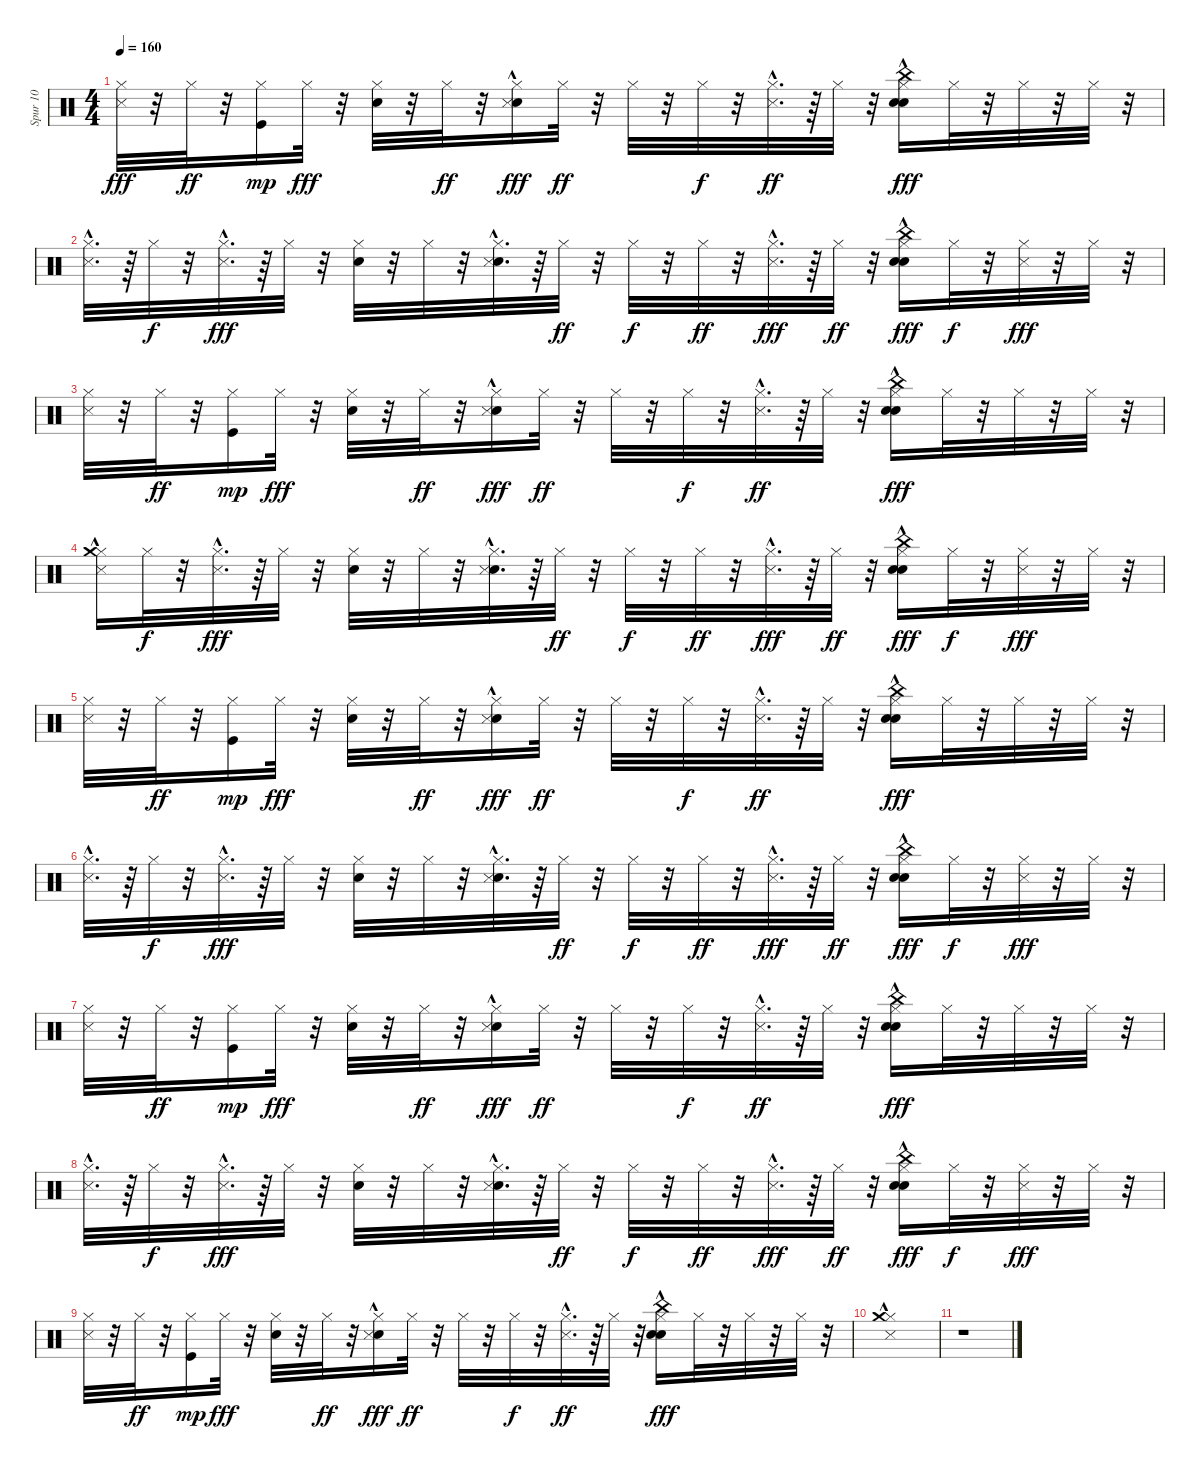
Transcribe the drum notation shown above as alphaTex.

\track ("Spur 10" "Spur 10") {instrument percussion}
\staff {score}
\articulation defaults
\ts (4 4)
\tempo 160
\clef neutral
\ks c
("Hi-Hat (closed)" "Metronome (hit)").32{dy fff} r.32 "Hi-Hat (closed)".32{dy ff} r.32 ("Hi-Hat (closed)" "Kick (hit)").16{dy mp} "Hi-Hat (closed)".32{dy fff} r.32 ("Hi-Hat (closed)" "Snare (hit) 2").32 r.32 "Hi-Hat (closed)".32{dy ff} r.32 ("Hi-Hat (closed)" "Snare (hit) 2" "Metronome (hit)"{hac}).16{dy fff} "Hi-Hat (closed)".32{dy ff} r.32 "Hi-Hat (closed)".32 r.32 "Hi-Hat (closed)".32{dy f} r.32 ("Hi-Hat (closed)" "Metronome (hit)"{hac}).32{d dy ff} r.64 "Hi-Hat (closed)".32 r.32 ("Hi-Hat (closed)" "Snare (hit) 2"{hac} "China (hit)" "Hand Clap (hit)").16{dy fff} "Hi-Hat (closed)".32 r.32 "Hi-Hat (closed)".32 r.32 "Hi-Hat (closed)".32 r.32 |
("Hi-Hat (closed)" "Metronome (hit)"{hac}).32{d} r.64 "Hi-Hat (closed)".32{dy f} r.32 ("Hi-Hat (closed)" "Metronome (hit)"{hac}).32{d dy fff} r.64 "Hi-Hat (closed)".32 r.32 ("Hi-Hat (closed)" "Snare (hit) 2").32 r.32 "Hi-Hat (closed)".32 r.32 ("Hi-Hat (closed)" "Snare (hit) 2"{hac} "Metronome (hit)"{hac}).32{d} r.64 "Hi-Hat (closed)".32{dy ff} r.32 "Hi-Hat (closed)".32{dy f} r.32 "Hi-Hat (closed)".32{dy ff} r.32 ("Hi-Hat (closed)" "Metronome (hit)"{hac}).32{d dy fff} r.64 "Hi-Hat (closed)".32{dy ff} r.32 ("Hi-Hat (closed)" "Snare (hit) 2"{hac} "China (hit)" "Hand Clap (hit)").16{dy fff} "Hi-Hat (closed)".32{dy f} r.32 ("Hi-Hat (closed)" "Metronome (hit)").32{dy fff} r.32 "Hi-Hat (closed)".32 r.32 |
("Hi-Hat (closed)" "Metronome (hit)").32 r.32 "Hi-Hat (closed)".32{dy ff} r.32 ("Hi-Hat (closed)" "Kick (hit)").16{dy mp} "Hi-Hat (closed)".32{dy fff} r.32 ("Hi-Hat (closed)" "Snare (hit) 2").32 r.32 "Hi-Hat (closed)".32{dy ff} r.32 ("Hi-Hat (closed)" "Snare (hit) 2" "Metronome (hit)"{hac}).16{dy fff} "Hi-Hat (closed)".32{dy ff} r.32 "Hi-Hat (closed)".32 r.32 "Hi-Hat (closed)".32{dy f} r.32 ("Hi-Hat (closed)" "Metronome (hit)"{hac}).32{d dy ff} r.64 "Hi-Hat (closed)".32 r.32 ("Hi-Hat (closed)" "Snare (hit) 2"{hac} "China (hit)" "Hand Clap (hit)").16{dy fff} "Hi-Hat (closed)".32 r.32 "Hi-Hat (closed)".32 r.32 "Hi-Hat (closed)".32 r.32 |
("Hi-Hat (closed)" "Metronome (hit)"{hac} "Crash medium (hit)").16 "Hi-Hat (closed)".32{dy f} r.32 ("Hi-Hat (closed)" "Metronome (hit)"{hac}).32{d dy fff} r.64 "Hi-Hat (closed)".32 r.32 ("Hi-Hat (closed)" "Snare (hit) 2").32 r.32 "Hi-Hat (closed)".32 r.32 ("Hi-Hat (closed)" "Snare (hit) 2"{hac} "Metronome (hit)"{hac}).32{d} r.64 "Hi-Hat (closed)".32{dy ff} r.32 "Hi-Hat (closed)".32{dy f} r.32 "Hi-Hat (closed)".32{dy ff} r.32 ("Hi-Hat (closed)" "Metronome (hit)"{hac}).32{d dy fff} r.64 "Hi-Hat (closed)".32{dy ff} r.32 ("Hi-Hat (closed)" "Snare (hit) 2"{hac} "China (hit)" "Hand Clap (hit)").16{dy fff} "Hi-Hat (closed)".32{dy f} r.32 ("Hi-Hat (closed)" "Metronome (hit)").32{dy fff} r.32 "Hi-Hat (closed)".32 r.32 |
("Hi-Hat (closed)" "Metronome (hit)").32 r.32 "Hi-Hat (closed)".32{dy ff} r.32 ("Hi-Hat (closed)" "Kick (hit)").16{dy mp} "Hi-Hat (closed)".32{dy fff} r.32 ("Hi-Hat (closed)" "Snare (hit) 2").32 r.32 "Hi-Hat (closed)".32{dy ff} r.32 ("Hi-Hat (closed)" "Snare (hit) 2" "Metronome (hit)"{hac}).16{dy fff} "Hi-Hat (closed)".32{dy ff} r.32 "Hi-Hat (closed)".32 r.32 "Hi-Hat (closed)".32{dy f} r.32 ("Hi-Hat (closed)" "Metronome (hit)"{hac}).32{d dy ff} r.64 "Hi-Hat (closed)".32 r.32 ("Hi-Hat (closed)" "Snare (hit) 2"{hac} "China (hit)" "Hand Clap (hit)").16{dy fff} "Hi-Hat (closed)".32 r.32 "Hi-Hat (closed)".32 r.32 "Hi-Hat (closed)".32 r.32 |
("Hi-Hat (closed)" "Metronome (hit)"{hac}).32{d} r.64 "Hi-Hat (closed)".32{dy f} r.32 ("Hi-Hat (closed)" "Metronome (hit)"{hac}).32{d dy fff} r.64 "Hi-Hat (closed)".32 r.32 ("Hi-Hat (closed)" "Snare (hit) 2").32 r.32 "Hi-Hat (closed)".32 r.32 ("Hi-Hat (closed)" "Snare (hit) 2"{hac} "Metronome (hit)"{hac}).32{d} r.64 "Hi-Hat (closed)".32{dy ff} r.32 "Hi-Hat (closed)".32{dy f} r.32 "Hi-Hat (closed)".32{dy ff} r.32 ("Hi-Hat (closed)" "Metronome (hit)"{hac}).32{d dy fff} r.64 "Hi-Hat (closed)".32{dy ff} r.32 ("Hi-Hat (closed)" "Snare (hit) 2"{hac} "China (hit)" "Hand Clap (hit)").16{dy fff} "Hi-Hat (closed)".32{dy f} r.32 ("Hi-Hat (closed)" "Metronome (hit)").32{dy fff} r.32 "Hi-Hat (closed)".32 r.32 |
("Hi-Hat (closed)" "Metronome (hit)").32 r.32 "Hi-Hat (closed)".32{dy ff} r.32 ("Hi-Hat (closed)" "Kick (hit)").16{dy mp} "Hi-Hat (closed)".32{dy fff} r.32 ("Hi-Hat (closed)" "Snare (hit) 2").32 r.32 "Hi-Hat (closed)".32{dy ff} r.32 ("Hi-Hat (closed)" "Snare (hit) 2" "Metronome (hit)"{hac}).16{dy fff} "Hi-Hat (closed)".32{dy ff} r.32 "Hi-Hat (closed)".32 r.32 "Hi-Hat (closed)".32{dy f} r.32 ("Hi-Hat (closed)" "Metronome (hit)"{hac}).32{d dy ff} r.64 "Hi-Hat (closed)".32 r.32 ("Hi-Hat (closed)" "Snare (hit) 2"{hac} "China (hit)" "Hand Clap (hit)").16{dy fff} "Hi-Hat (closed)".32 r.32 "Hi-Hat (closed)".32 r.32 "Hi-Hat (closed)".32 r.32 |
("Hi-Hat (closed)" "Metronome (hit)"{hac}).32{d} r.64 "Hi-Hat (closed)".32{dy f} r.32 ("Hi-Hat (closed)" "Metronome (hit)"{hac}).32{d dy fff} r.64 "Hi-Hat (closed)".32 r.32 ("Hi-Hat (closed)" "Snare (hit) 2").32 r.32 "Hi-Hat (closed)".32 r.32 ("Hi-Hat (closed)" "Snare (hit) 2"{hac} "Metronome (hit)"{hac}).32{d} r.64 "Hi-Hat (closed)".32{dy ff} r.32 "Hi-Hat (closed)".32{dy f} r.32 "Hi-Hat (closed)".32{dy ff} r.32 ("Hi-Hat (closed)" "Metronome (hit)"{hac}).32{d dy fff} r.64 "Hi-Hat (closed)".32{dy ff} r.32 ("Hi-Hat (closed)" "Snare (hit) 2"{hac} "China (hit)" "Hand Clap (hit)").16{dy fff} "Hi-Hat (closed)".32{dy f} r.32 ("Hi-Hat (closed)" "Metronome (hit)").32{dy fff} r.32 "Hi-Hat (closed)".32 r.32 |
("Hi-Hat (closed)" "Metronome (hit)").32 r.32 "Hi-Hat (closed)".32{dy ff} r.32 ("Hi-Hat (closed)" "Kick (hit)").16{dy mp} "Hi-Hat (closed)".32{dy fff} r.32 ("Hi-Hat (closed)" "Snare (hit) 2").32 r.32 "Hi-Hat (closed)".32{dy ff} r.32 ("Hi-Hat (closed)" "Snare (hit) 2" "Metronome (hit)"{hac}).16{dy fff} "Hi-Hat (closed)".32{dy ff} r.32 "Hi-Hat (closed)".32 r.32 "Hi-Hat (closed)".32{dy f} r.32 ("Hi-Hat (closed)" "Metronome (hit)"{hac}).32{d dy ff} r.64 "Hi-Hat (closed)".32 r.32 ("Hi-Hat (closed)" "Snare (hit) 2"{hac} "China (hit)" "Hand Clap (hit)").16{dy fff} "Hi-Hat (closed)".32 r.32 "Hi-Hat (closed)".32 r.32 "Hi-Hat (closed)".32 r.32 |
("Hi-Hat (closed)" "Metronome (hit)"{hac} "Crash medium (hit)").1 |
r.1
